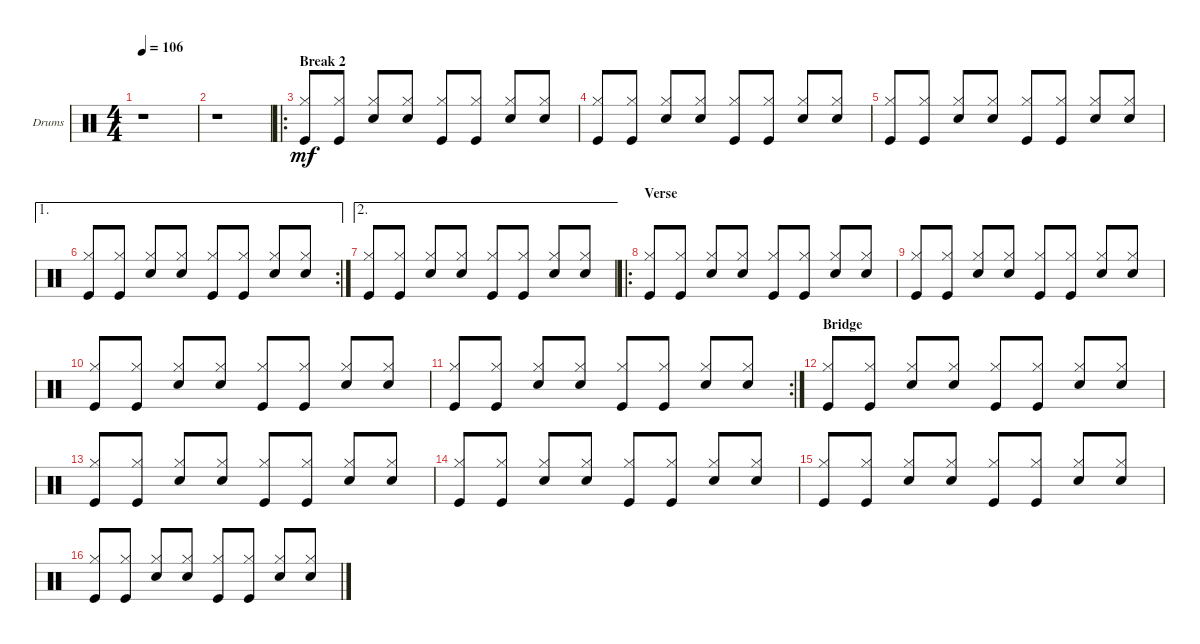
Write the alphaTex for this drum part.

\defaultSystemsLayout 4
\bracketExtendMode groupsimilarinstruments
\firstSystemTrackNameOrientation horizontal
\otherSystemsTrackNameOrientation horizontal
\track ("Drums" "Drums") {instrument percussion}
\staff {score}
\articulation defaults
\ts (4 4)
\tempo 106
\clef neutral
\ks c
r.1{dy mf} |
r.1 |
\ro
\section ("" "Break 2")
("Hi-Hat (closed)" "Kick (hit)").8{beam invert} ("Hi-Hat (closed)" "Kick (hit)").8 ("Hi-Hat (closed)" "Snare (hit) 2").8{beam invert} ("Hi-Hat (closed)" "Snare (hit) 2").8 ("Hi-Hat (closed)" "Kick (hit)").8{beam invert} ("Hi-Hat (closed)" "Kick (hit)").8 ("Hi-Hat (closed)" "Snare (hit) 2").8{beam invert} ("Hi-Hat (closed)" "Snare (hit) 2").8 |
("Hi-Hat (closed)" "Kick (hit)").8{beam invert} ("Hi-Hat (closed)" "Kick (hit)").8 ("Hi-Hat (closed)" "Snare (hit) 2").8{beam invert} ("Hi-Hat (closed)" "Snare (hit) 2").8 ("Hi-Hat (closed)" "Kick (hit)").8{beam invert} ("Hi-Hat (closed)" "Kick (hit)").8 ("Hi-Hat (closed)" "Snare (hit) 2").8{beam invert} ("Hi-Hat (closed)" "Snare (hit) 2").8 |
("Hi-Hat (closed)" "Kick (hit)").8{beam invert} ("Hi-Hat (closed)" "Kick (hit)").8 ("Hi-Hat (closed)" "Snare (hit) 2").8{beam invert} ("Hi-Hat (closed)" "Snare (hit) 2").8 ("Hi-Hat (closed)" "Kick (hit)").8{beam invert} ("Hi-Hat (closed)" "Kick (hit)").8 ("Hi-Hat (closed)" "Snare (hit) 2").8{beam invert} ("Hi-Hat (closed)" "Snare (hit) 2").8 |
\ae 1
\rc 2
("Hi-Hat (closed)" "Kick (hit)").8{beam invert} ("Hi-Hat (closed)" "Kick (hit)").8 ("Hi-Hat (closed)" "Snare (hit) 2").8{beam invert} ("Hi-Hat (closed)" "Snare (hit) 2").8 ("Hi-Hat (closed)" "Kick (hit)").8{beam invert} ("Hi-Hat (closed)" "Kick (hit)").8 ("Hi-Hat (closed)" "Snare (hit) 2").8{beam invert} ("Hi-Hat (closed)" "Snare (hit) 2").8 |
\ae 2
("Hi-Hat (closed)" "Kick (hit)").8{beam invert} ("Hi-Hat (closed)" "Kick (hit)").8 ("Hi-Hat (closed)" "Snare (hit) 2").8{beam invert} ("Hi-Hat (closed)" "Snare (hit) 2").8 ("Hi-Hat (closed)" "Kick (hit)").8{beam invert} ("Hi-Hat (closed)" "Kick (hit)").8 ("Hi-Hat (closed)" "Snare (hit) 2").8{beam invert} ("Hi-Hat (closed)" "Snare (hit) 2").8 |
\ro
\section ("" "Verse")
("Hi-Hat (closed)" "Kick (hit)").8{beam invert} ("Hi-Hat (closed)" "Kick (hit)").8 ("Hi-Hat (closed)" "Snare (hit) 2").8{beam invert} ("Hi-Hat (closed)" "Snare (hit) 2").8 ("Hi-Hat (closed)" "Kick (hit)").8{beam invert} ("Hi-Hat (closed)" "Kick (hit)").8 ("Hi-Hat (closed)" "Snare (hit) 2").8{beam invert} ("Hi-Hat (closed)" "Snare (hit) 2").8 |
("Hi-Hat (closed)" "Kick (hit)").8{beam invert} ("Hi-Hat (closed)" "Kick (hit)").8 ("Hi-Hat (closed)" "Snare (hit) 2").8{beam invert} ("Hi-Hat (closed)" "Snare (hit) 2").8 ("Hi-Hat (closed)" "Kick (hit)").8{beam invert} ("Hi-Hat (closed)" "Kick (hit)").8 ("Hi-Hat (closed)" "Snare (hit) 2").8{beam invert} ("Hi-Hat (closed)" "Snare (hit) 2").8 |
("Hi-Hat (closed)" "Kick (hit)").8{beam invert} ("Hi-Hat (closed)" "Kick (hit)").8 ("Hi-Hat (closed)" "Snare (hit) 2").8{beam invert} ("Hi-Hat (closed)" "Snare (hit) 2").8 ("Hi-Hat (closed)" "Kick (hit)").8{beam invert} ("Hi-Hat (closed)" "Kick (hit)").8 ("Hi-Hat (closed)" "Snare (hit) 2").8{beam invert} ("Hi-Hat (closed)" "Snare (hit) 2").8 |
\rc 2
("Hi-Hat (closed)" "Kick (hit)").8{beam invert} ("Hi-Hat (closed)" "Kick (hit)").8 ("Hi-Hat (closed)" "Snare (hit) 2").8{beam invert} ("Hi-Hat (closed)" "Snare (hit) 2").8 ("Hi-Hat (closed)" "Kick (hit)").8{beam invert} ("Hi-Hat (closed)" "Kick (hit)").8 ("Hi-Hat (closed)" "Snare (hit) 2").8{beam invert} ("Hi-Hat (closed)" "Snare (hit) 2").8 |
\section ("" "Bridge")
("Hi-Hat (closed)" "Kick (hit)").8{beam invert} ("Hi-Hat (closed)" "Kick (hit)").8 ("Hi-Hat (closed)" "Snare (hit) 2").8{beam invert} ("Hi-Hat (closed)" "Snare (hit) 2").8 ("Hi-Hat (closed)" "Kick (hit)").8{beam invert} ("Hi-Hat (closed)" "Kick (hit)").8 ("Hi-Hat (closed)" "Snare (hit) 2").8{beam invert} ("Hi-Hat (closed)" "Snare (hit) 2").8 |
("Hi-Hat (closed)" "Kick (hit)").8{beam invert} ("Hi-Hat (closed)" "Kick (hit)").8 ("Hi-Hat (closed)" "Snare (hit) 2").8{beam invert} ("Hi-Hat (closed)" "Snare (hit) 2").8 ("Hi-Hat (closed)" "Kick (hit)").8{beam invert} ("Hi-Hat (closed)" "Kick (hit)").8 ("Hi-Hat (closed)" "Snare (hit) 2").8{beam invert} ("Hi-Hat (closed)" "Snare (hit) 2").8 |
("Hi-Hat (closed)" "Kick (hit)").8{beam invert} ("Hi-Hat (closed)" "Kick (hit)").8 ("Hi-Hat (closed)" "Snare (hit) 2").8{beam invert} ("Hi-Hat (closed)" "Snare (hit) 2").8 ("Hi-Hat (closed)" "Kick (hit)").8{beam invert} ("Hi-Hat (closed)" "Kick (hit)").8 ("Hi-Hat (closed)" "Snare (hit) 2").8{beam invert} ("Hi-Hat (closed)" "Snare (hit) 2").8 |
("Hi-Hat (closed)" "Kick (hit)").8{beam invert} ("Hi-Hat (closed)" "Kick (hit)").8 ("Hi-Hat (closed)" "Snare (hit) 2").8{beam invert} ("Hi-Hat (closed)" "Snare (hit) 2").8 ("Hi-Hat (closed)" "Kick (hit)").8{beam invert} ("Hi-Hat (closed)" "Kick (hit)").8 ("Hi-Hat (closed)" "Snare (hit) 2").8{beam invert} ("Hi-Hat (closed)" "Snare (hit) 2").8 |
("Hi-Hat (closed)" "Kick (hit)").8{beam invert} ("Hi-Hat (closed)" "Kick (hit)").8 ("Hi-Hat (closed)" "Snare (hit) 2").8{beam invert} ("Hi-Hat (closed)" "Snare (hit) 2").8 ("Hi-Hat (closed)" "Kick (hit)").8{beam invert} ("Hi-Hat (closed)" "Kick (hit)").8 ("Hi-Hat (closed)" "Snare (hit) 2").8{beam invert} ("Hi-Hat (closed)" "Snare (hit) 2").8
